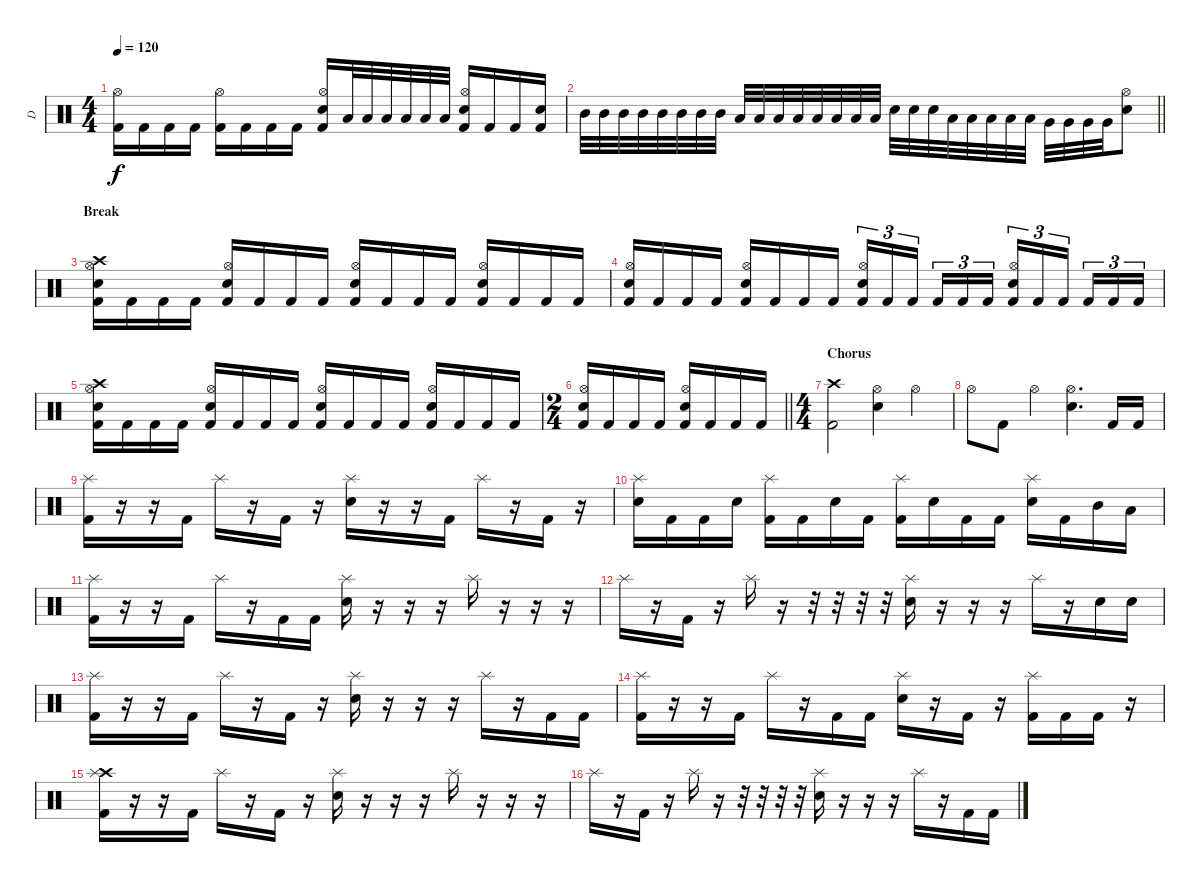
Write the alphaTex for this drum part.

\track ("D" "D") {instrument percussion}
\staff {score}
\articulation defaults
\ts (4 4)
\tempo 120
\clef neutral
\ks c
("Kick (hit) 2" "Hi-Hat (open)").16{dy f} "Kick (hit) 2".16 "Kick (hit) 2".16 "Kick (hit) 2".16 ("Kick (hit) 2" "Hi-Hat (open)").16 "Kick (hit) 2".16 "Kick (hit) 2".16 "Kick (hit) 2".16 ("Electric Snare (hit)" "Kick (hit) 2" "Hi-Hat (open)").16 "Low Tom (hit)".32 "Low Tom (hit)".32 "Low Tom (hit)".32 "Low Tom (hit)".32 "Low Tom (hit)".32 "Low Tom (hit)".32 ("Electric Snare (hit)" "Kick (hit) 2" "Hi-Hat (open)").16 "Kick (hit) 2".16 "Kick (hit) 2".16 ("Electric Snare (hit)" "Kick (hit) 2").16 |
\barLineRight lightlight "Mid Tom (hit)".32 "Mid Tom (hit)".32 "Mid Tom (hit)".32 "Mid Tom (hit)".32 "Mid Tom (hit)".32 "Mid Tom (hit)".32 "Mid Tom (hit)".32 "Mid Tom (hit)".32 "Low Tom (hit)".32 "Low Tom (hit)".32 "Low Tom (hit)".32 "Low Tom (hit)".32 "Low Tom (hit)".32 "Low Tom (hit)".32 "Low Tom (hit)".32 "Low Tom (hit)".32 "Electric Snare (hit)".32 "Electric Snare (hit)".32 "Electric Snare (hit)".32 "Low Tom (hit)".32 "Low Tom (hit)".32 "Low Tom (hit)".32 "Low Tom (hit)".32 "Low Tom (hit)".32 "Very Low Tom (hit)".32 "Very Low Tom (hit)".32 "Very Low Tom (hit)".32 "Very Low Tom (hit)".32
("Electric Snare (hit)" "Hi-Hat (open)").8 |
\section ("" "Break")
("Crash high (hit)" "Electric Snare (hit)" "Kick (hit) 2" "Hi-Hat (open)").16 "Kick (hit) 2".16 "Kick (hit) 2".16 "Kick (hit) 2".16 ("Electric Snare (hit)" "Kick (hit) 2" "Hi-Hat (open)").16 "Kick (hit) 2".16 "Kick (hit) 2".16 "Kick (hit) 2".16 ("Electric Snare (hit)" "Kick (hit) 2" "Hi-Hat (open)").16 "Kick (hit) 2".16 "Kick (hit) 2".16 "Kick (hit) 2".16 ("Electric Snare (hit)" "Kick (hit) 2" "Hi-Hat (open)").16 "Kick (hit) 2".16 "Kick (hit) 2".16 "Kick (hit) 2".16 |
("Electric Snare (hit)" "Kick (hit) 2" "Hi-Hat (open)").16 "Kick (hit) 2".16 "Kick (hit) 2".16 "Kick (hit) 2".16 ("Electric Snare (hit)" "Kick (hit) 2" "Hi-Hat (open)").16 "Kick (hit) 2".16 "Kick (hit) 2".16 "Kick (hit) 2".16 ("Electric Snare (hit)" "Kick (hit) 2" "Hi-Hat (open)").16{tu (3 2)} "Kick (hit) 2".16{tu (3 2)} "Kick (hit) 2".16{tu (3 2) beam splitsecondary} "Kick (hit) 2".16{tu (3 2)} "Kick (hit) 2".16{tu (3 2)} "Kick (hit) 2".16{tu (3 2)} ("Electric Snare (hit)" "Kick (hit) 2" "Hi-Hat (open)").16{tu (3 2)} "Kick (hit) 2".16{tu (3 2)} "Kick (hit) 2".16{tu (3 2) beam splitsecondary} "Kick (hit) 2".16{tu (3 2)} "Kick (hit) 2".16{tu (3 2)} "Kick (hit) 2".16{tu (3 2)} |
("Crash high (hit)" "Electric Snare (hit)" "Kick (hit) 2" "Hi-Hat (open)").16 "Kick (hit) 2".16 "Kick (hit) 2".16 "Kick (hit) 2".16 ("Electric Snare (hit)" "Kick (hit) 2" "Hi-Hat (open)").16 "Kick (hit) 2".16 "Kick (hit) 2".16 "Kick (hit) 2".16 ("Electric Snare (hit)" "Kick (hit) 2" "Hi-Hat (open)").16 "Kick (hit) 2".16 "Kick (hit) 2".16 "Kick (hit) 2".16 ("Electric Snare (hit)" "Kick (hit) 2" "Hi-Hat (open)").16 "Kick (hit) 2".16 "Kick (hit) 2".16 "Kick (hit) 2".16 |
\ts (2 4)
\barLineRight lightlight
("Electric Snare (hit)" "Kick (hit) 2" "Hi-Hat (open)").16 "Kick (hit) 2".16 "Kick (hit) 2".16 "Kick (hit) 2".16 ("Electric Snare (hit)" "Kick (hit) 2" "Hi-Hat (open)").16 "Kick (hit) 2".16 "Kick (hit) 2".16 "Kick (hit) 2".16 |
\ts (4 4)
\section ("" "Chorus")
("Crash high (hit)" "Kick (hit) 2").2 ("Electric Snare (hit)" "Hi-Hat (open)").4 "Hi-Hat (open)".4 |
"Hi-Hat (open)".8 "Kick (hit) 2".8 "Hi-Hat (open)".4 ("Electric Snare (hit)" "Hi-Hat (open)").4{d} "Kick (hit) 2".16 "Kick (hit) 2".16 |
("Kick (hit) 2" "Splash (hit)").16 r.16 r.16 "Kick (hit) 2".16 "Splash (hit)".16 r.16 "Kick (hit) 2".16 r.16 ("Electric Snare (hit)" "Splash (hit)").16 r.16 r.16 "Kick (hit) 2".16 "Splash (hit)".16 r.16 "Kick (hit) 2".16 r.16 |
("Electric Snare (hit)" "Splash (hit)").16 "Kick (hit) 2".16 "Kick (hit) 2".16 "Electric Snare (hit)".16 ("Kick (hit) 2" "Splash (hit)").16 "Kick (hit) 2".16 "Electric Snare (hit)".16 "Kick (hit) 2".16 ("Kick (hit) 2" "Splash (hit)").16 "Electric Snare (hit)".16 "Kick (hit) 2".16 "Kick (hit) 2".16 ("Electric Snare (hit)" "Splash (hit)").16 "Kick (hit) 2".16 "Mid Tom (hit)".16 "Low Tom (hit)".16 |
("Kick (hit) 2" "Splash (hit)").16 r.16 r.16 "Kick (hit) 2".16 "Splash (hit)".16 r.16 "Kick (hit) 2".16 "Kick (hit) 2".16 ("Electric Snare (hit)" "Splash (hit)").16 r.16 r.16 r.16 "Splash (hit)".16 r.16 r.16 r.16 |
"Splash (hit)".16 r.16 "Kick (hit) 2".16 r.16 "Splash (hit)".16 r.16 r.32 r.32 r.32 r.32 ("Electric Snare (hit)" "Splash (hit)").16 r.16 r.16 r.16 "Splash (hit)".16 r.16 "Electric Snare (hit)".16 "Electric Snare (hit)".16 |
("Kick (hit) 2" "Splash (hit)").16 r.16 r.16 "Kick (hit) 2".16 "Splash (hit)".16 r.16 "Kick (hit) 2".16 r.16 ("Electric Snare (hit)" "Splash (hit)").16 r.16 r.16 r.16 "Splash (hit)".16 r.16 "Kick (hit) 2".16 "Kick (hit) 2".16 |
("Kick (hit) 2" "Splash (hit)").16 r.16 r.16 "Kick (hit) 2".16 "Splash (hit)".16 r.16 "Kick (hit) 2".16 "Kick (hit) 2".16 ("Electric Snare (hit)" "Splash (hit)").16 r.16 "Kick (hit) 2".16 r.16 ("Kick (hit) 2" "Splash (hit)").16 "Kick (hit) 2".16 "Kick (hit) 2".16 r.16 |
("Crash high (hit)" "Kick (hit) 2" "Splash (hit)").16 r.16 r.16 "Kick (hit) 2".16 "Splash (hit)".16 r.16 "Kick (hit) 2".16 r.16 ("Electric Snare (hit)" "Splash (hit)").16 r.16 r.16 r.16 "Splash (hit)".16 r.16 r.16 r.16 |
"Splash (hit)".16 r.16 "Kick (hit) 2".16 r.16 "Splash (hit)".16 r.16 r.32 r.32 r.32 r.32 ("Electric Snare (hit)" "Splash (hit)").16 r.16 r.16 r.16 "Splash (hit)".16 r.16 "Kick (hit) 2".16 "Kick (hit) 2".16
